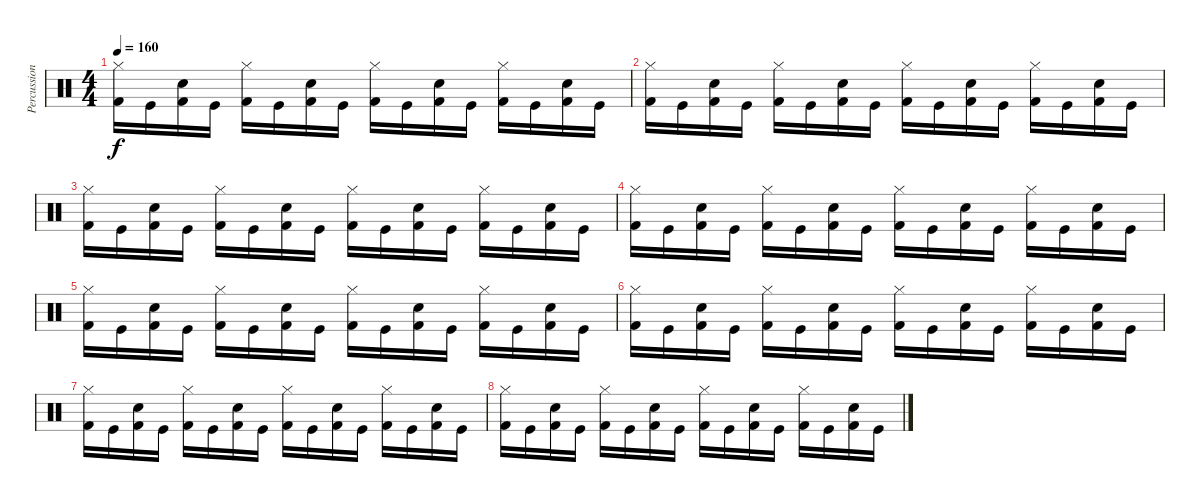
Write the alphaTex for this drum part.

\track ("Percussions" "Percussion") {instrument percussion}
\staff {score}
\articulation defaults
\ts (4 4)
\tempo 160
\clef neutral
\ks c
("Hi-Hat (closed)" "Kick (hit) 2").16{dy f} "Kick (hit)".16 ("Snare (hit) 2" "Kick (hit) 2").16 "Kick (hit)".16 ("Hi-Hat (closed)" "Kick (hit) 2").16 "Kick (hit)".16 ("Snare (hit) 2" "Kick (hit) 2").16 "Kick (hit)".16 ("Hi-Hat (closed)" "Kick (hit) 2").16 "Kick (hit)".16 ("Snare (hit) 2" "Kick (hit) 2").16 "Kick (hit)".16 ("Hi-Hat (closed)" "Kick (hit) 2").16 "Kick (hit)".16 ("Snare (hit) 2" "Kick (hit) 2").16 "Kick (hit)".16 |
("Hi-Hat (closed)" "Kick (hit) 2").16 "Kick (hit)".16 ("Snare (hit) 2" "Kick (hit) 2").16 "Kick (hit)".16 ("Hi-Hat (closed)" "Kick (hit) 2").16 "Kick (hit)".16 ("Snare (hit) 2" "Kick (hit) 2").16 "Kick (hit)".16 ("Hi-Hat (closed)" "Kick (hit) 2").16 "Kick (hit)".16 ("Snare (hit) 2" "Kick (hit) 2").16 "Kick (hit)".16 ("Hi-Hat (closed)" "Kick (hit) 2").16 "Kick (hit)".16 ("Snare (hit) 2" "Kick (hit) 2").16 "Kick (hit)".16 |
("Hi-Hat (closed)" "Kick (hit) 2").16 "Kick (hit)".16 ("Snare (hit) 2" "Kick (hit) 2").16 "Kick (hit)".16 ("Hi-Hat (closed)" "Kick (hit) 2").16 "Kick (hit)".16 ("Snare (hit) 2" "Kick (hit) 2").16 "Kick (hit)".16 ("Hi-Hat (closed)" "Kick (hit) 2").16 "Kick (hit)".16 ("Snare (hit) 2" "Kick (hit) 2").16 "Kick (hit)".16 ("Hi-Hat (closed)" "Kick (hit) 2").16 "Kick (hit)".16 ("Snare (hit) 2" "Kick (hit) 2").16 "Kick (hit)".16 |
("Hi-Hat (closed)" "Kick (hit) 2").16 "Kick (hit)".16 ("Snare (hit) 2" "Kick (hit) 2").16 "Kick (hit)".16 ("Hi-Hat (closed)" "Kick (hit) 2").16 "Kick (hit)".16 ("Snare (hit) 2" "Kick (hit) 2").16 "Kick (hit)".16 ("Hi-Hat (closed)" "Kick (hit) 2").16 "Kick (hit)".16 ("Snare (hit) 2" "Kick (hit) 2").16 "Kick (hit)".16 ("Hi-Hat (closed)" "Kick (hit) 2").16 "Kick (hit)".16 ("Snare (hit) 2" "Kick (hit) 2").16 "Kick (hit)".16 |
("Hi-Hat (closed)" "Kick (hit) 2").16 "Kick (hit)".16 ("Snare (hit) 2" "Kick (hit) 2").16 "Kick (hit)".16 ("Hi-Hat (closed)" "Kick (hit) 2").16 "Kick (hit)".16 ("Snare (hit) 2" "Kick (hit) 2").16 "Kick (hit)".16 ("Hi-Hat (closed)" "Kick (hit) 2").16 "Kick (hit)".16 ("Snare (hit) 2" "Kick (hit) 2").16 "Kick (hit)".16 ("Hi-Hat (closed)" "Kick (hit) 2").16 "Kick (hit)".16 ("Snare (hit) 2" "Kick (hit) 2").16 "Kick (hit)".16 |
("Hi-Hat (closed)" "Kick (hit) 2").16 "Kick (hit)".16 ("Snare (hit) 2" "Kick (hit) 2").16 "Kick (hit)".16 ("Hi-Hat (closed)" "Kick (hit) 2").16 "Kick (hit)".16 ("Snare (hit) 2" "Kick (hit) 2").16 "Kick (hit)".16 ("Hi-Hat (closed)" "Kick (hit) 2").16 "Kick (hit)".16 ("Snare (hit) 2" "Kick (hit) 2").16 "Kick (hit)".16 ("Hi-Hat (closed)" "Kick (hit) 2").16 "Kick (hit)".16 ("Snare (hit) 2" "Kick (hit) 2").16 "Kick (hit)".16 |
("Hi-Hat (closed)" "Kick (hit) 2").16 "Kick (hit)".16 ("Snare (hit) 2" "Kick (hit) 2").16 "Kick (hit)".16 ("Hi-Hat (closed)" "Kick (hit) 2").16 "Kick (hit)".16 ("Snare (hit) 2" "Kick (hit) 2").16 "Kick (hit)".16 ("Hi-Hat (closed)" "Kick (hit) 2").16 "Kick (hit)".16 ("Snare (hit) 2" "Kick (hit) 2").16 "Kick (hit)".16 ("Hi-Hat (closed)" "Kick (hit) 2").16 "Kick (hit)".16 ("Snare (hit) 2" "Kick (hit) 2").16 "Kick (hit)".16 |
("Hi-Hat (closed)" "Kick (hit) 2").16 "Kick (hit)".16 ("Snare (hit) 2" "Kick (hit) 2").16 "Kick (hit)".16 ("Hi-Hat (closed)" "Kick (hit) 2").16 "Kick (hit)".16 ("Snare (hit) 2" "Kick (hit) 2").16 "Kick (hit)".16 ("Hi-Hat (closed)" "Kick (hit) 2").16 "Kick (hit)".16 ("Snare (hit) 2" "Kick (hit) 2").16 "Kick (hit)".16 ("Hi-Hat (closed)" "Kick (hit) 2").16 "Kick (hit)".16 ("Snare (hit) 2" "Kick (hit) 2").16 "Kick (hit)".16
